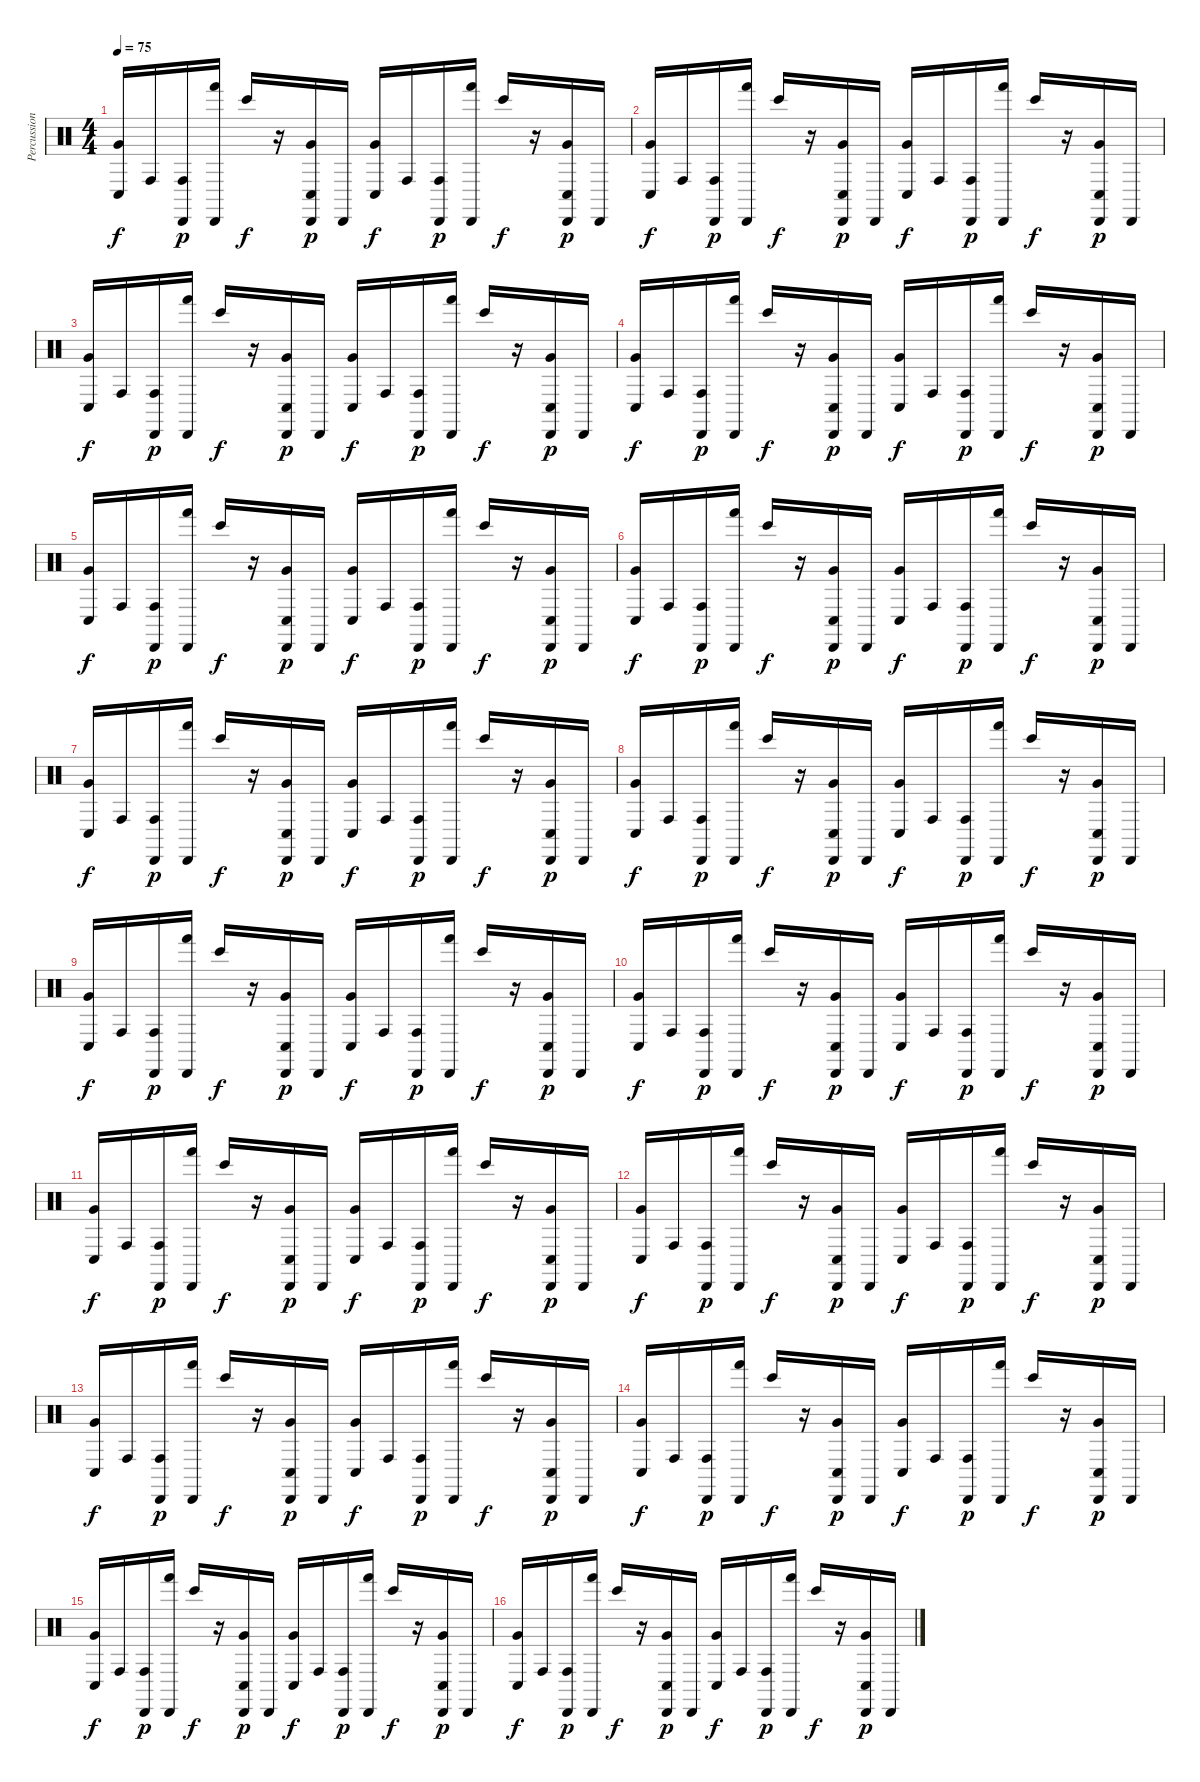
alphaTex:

\track ("Percussions" "Percussion") {instrument percussion}
\staff {score}
\articulation defaults
\ts (4 4)
\tempo 75
\clef neutral
\ks c
("Conga low (hit)" "Very Low Tom (hit)").16{dy f} "Conga high (hit)".16 ("Conga high (hit)" "Cabasa (hit)").16{dy p} ("Hand (hit)" "Cabasa (hit)").16 "Bongo High (hit)".16{dy f} r.16 ("Conga low (hit)" "Very Low Tom (hit)" "Cabasa (hit)").16{dy p} "Cabasa (hit)".16 ("Conga low (hit)" "Very Low Tom (hit)").16{dy f} "Conga high (hit)".16 ("Conga high (hit)" "Cabasa (hit)").16{dy p} ("Hand (hit)" "Cabasa (hit)").16 "Bongo High (hit)".16{dy f} r.16 ("Conga low (hit)" "Very Low Tom (hit)" "Cabasa (hit)").16{dy p} "Cabasa (hit)".16 |
("Conga low (hit)" "Very Low Tom (hit)").16{dy f} "Conga high (hit)".16 ("Conga high (hit)" "Cabasa (hit)").16{dy p} ("Hand (hit)" "Cabasa (hit)").16 "Bongo High (hit)".16{dy f} r.16 ("Conga low (hit)" "Very Low Tom (hit)" "Cabasa (hit)").16{dy p} "Cabasa (hit)".16 ("Conga low (hit)" "Very Low Tom (hit)").16{dy f} "Conga high (hit)".16 ("Conga high (hit)" "Cabasa (hit)").16{dy p} ("Hand (hit)" "Cabasa (hit)").16 "Bongo High (hit)".16{dy f} r.16 ("Conga low (hit)" "Very Low Tom (hit)" "Cabasa (hit)").16{dy p} "Cabasa (hit)".16 |
("Conga low (hit)" "Very Low Tom (hit)").16{dy f} "Conga high (hit)".16 ("Conga high (hit)" "Cabasa (hit)").16{dy p} ("Hand (hit)" "Cabasa (hit)").16 "Bongo High (hit)".16{dy f} r.16 ("Conga low (hit)" "Very Low Tom (hit)" "Cabasa (hit)").16{dy p} "Cabasa (hit)".16 ("Conga low (hit)" "Very Low Tom (hit)").16{dy f} "Conga high (hit)".16 ("Conga high (hit)" "Cabasa (hit)").16{dy p} ("Hand (hit)" "Cabasa (hit)").16 "Bongo High (hit)".16{dy f} r.16 ("Conga low (hit)" "Very Low Tom (hit)" "Cabasa (hit)").16{dy p} "Cabasa (hit)".16 |
("Conga low (hit)" "Very Low Tom (hit)").16{dy f} "Conga high (hit)".16 ("Conga high (hit)" "Cabasa (hit)").16{dy p} ("Hand (hit)" "Cabasa (hit)").16 "Bongo High (hit)".16{dy f} r.16 ("Conga low (hit)" "Very Low Tom (hit)" "Cabasa (hit)").16{dy p} "Cabasa (hit)".16 ("Conga low (hit)" "Very Low Tom (hit)").16{dy f} "Conga high (hit)".16 ("Conga high (hit)" "Cabasa (hit)").16{dy p} ("Hand (hit)" "Cabasa (hit)").16 "Bongo High (hit)".16{dy f} r.16 ("Conga low (hit)" "Very Low Tom (hit)" "Cabasa (hit)").16{dy p} "Cabasa (hit)".16 |
("Conga low (hit)" "Very Low Tom (hit)").16{dy f} "Conga high (hit)".16 ("Conga high (hit)" "Cabasa (hit)").16{dy p} ("Hand (hit)" "Cabasa (hit)").16 "Bongo High (hit)".16{dy f} r.16 ("Conga low (hit)" "Very Low Tom (hit)" "Cabasa (hit)").16{dy p} "Cabasa (hit)".16 ("Conga low (hit)" "Very Low Tom (hit)").16{dy f} "Conga high (hit)".16 ("Conga high (hit)" "Cabasa (hit)").16{dy p} ("Hand (hit)" "Cabasa (hit)").16 "Bongo High (hit)".16{dy f} r.16 ("Conga low (hit)" "Very Low Tom (hit)" "Cabasa (hit)").16{dy p} "Cabasa (hit)".16 |
("Conga low (hit)" "Very Low Tom (hit)").16{dy f} "Conga high (hit)".16 ("Conga high (hit)" "Cabasa (hit)").16{dy p} ("Hand (hit)" "Cabasa (hit)").16 "Bongo High (hit)".16{dy f} r.16 ("Conga low (hit)" "Very Low Tom (hit)" "Cabasa (hit)").16{dy p} "Cabasa (hit)".16 ("Conga low (hit)" "Very Low Tom (hit)").16{dy f} "Conga high (hit)".16 ("Conga high (hit)" "Cabasa (hit)").16{dy p} ("Hand (hit)" "Cabasa (hit)").16 "Bongo High (hit)".16{dy f} r.16 ("Conga low (hit)" "Very Low Tom (hit)" "Cabasa (hit)").16{dy p} "Cabasa (hit)".16 |
("Conga low (hit)" "Very Low Tom (hit)").16{dy f} "Conga high (hit)".16 ("Conga high (hit)" "Cabasa (hit)").16{dy p} ("Hand (hit)" "Cabasa (hit)").16 "Bongo High (hit)".16{dy f} r.16 ("Conga low (hit)" "Very Low Tom (hit)" "Cabasa (hit)").16{dy p} "Cabasa (hit)".16 ("Conga low (hit)" "Very Low Tom (hit)").16{dy f} "Conga high (hit)".16 ("Conga high (hit)" "Cabasa (hit)").16{dy p} ("Hand (hit)" "Cabasa (hit)").16 "Bongo High (hit)".16{dy f} r.16 ("Conga low (hit)" "Very Low Tom (hit)" "Cabasa (hit)").16{dy p} "Cabasa (hit)".16 |
("Conga low (hit)" "Very Low Tom (hit)").16{dy f} "Conga high (hit)".16 ("Conga high (hit)" "Cabasa (hit)").16{dy p} ("Hand (hit)" "Cabasa (hit)").16 "Bongo High (hit)".16{dy f} r.16 ("Conga low (hit)" "Very Low Tom (hit)" "Cabasa (hit)").16{dy p} "Cabasa (hit)".16 ("Conga low (hit)" "Very Low Tom (hit)").16{dy f} "Conga high (hit)".16 ("Conga high (hit)" "Cabasa (hit)").16{dy p} ("Hand (hit)" "Cabasa (hit)").16 "Bongo High (hit)".16{dy f} r.16 ("Conga low (hit)" "Very Low Tom (hit)" "Cabasa (hit)").16{dy p} "Cabasa (hit)".16 |
("Conga low (hit)" "Very Low Tom (hit)").16{dy f} "Conga high (hit)".16 ("Conga high (hit)" "Cabasa (hit)").16{dy p} ("Hand (hit)" "Cabasa (hit)").16 "Bongo High (hit)".16{dy f} r.16 ("Conga low (hit)" "Very Low Tom (hit)" "Cabasa (hit)").16{dy p} "Cabasa (hit)".16 ("Conga low (hit)" "Very Low Tom (hit)").16{dy f} "Conga high (hit)".16 ("Conga high (hit)" "Cabasa (hit)").16{dy p} ("Hand (hit)" "Cabasa (hit)").16 "Bongo High (hit)".16{dy f} r.16 ("Conga low (hit)" "Very Low Tom (hit)" "Cabasa (hit)").16{dy p} "Cabasa (hit)".16 |
("Conga low (hit)" "Very Low Tom (hit)").16{dy f} "Conga high (hit)".16 ("Conga high (hit)" "Cabasa (hit)").16{dy p} ("Hand (hit)" "Cabasa (hit)").16 "Bongo High (hit)".16{dy f} r.16 ("Conga low (hit)" "Very Low Tom (hit)" "Cabasa (hit)").16{dy p} "Cabasa (hit)".16 ("Conga low (hit)" "Very Low Tom (hit)").16{dy f} "Conga high (hit)".16 ("Conga high (hit)" "Cabasa (hit)").16{dy p} ("Hand (hit)" "Cabasa (hit)").16 "Bongo High (hit)".16{dy f} r.16 ("Conga low (hit)" "Very Low Tom (hit)" "Cabasa (hit)").16{dy p} "Cabasa (hit)".16 |
("Conga low (hit)" "Very Low Tom (hit)").16{dy f} "Conga high (hit)".16 ("Conga high (hit)" "Cabasa (hit)").16{dy p} ("Hand (hit)" "Cabasa (hit)").16 "Bongo High (hit)".16{dy f} r.16 ("Conga low (hit)" "Very Low Tom (hit)" "Cabasa (hit)").16{dy p} "Cabasa (hit)".16 ("Conga low (hit)" "Very Low Tom (hit)").16{dy f} "Conga high (hit)".16 ("Conga high (hit)" "Cabasa (hit)").16{dy p} ("Hand (hit)" "Cabasa (hit)").16 "Bongo High (hit)".16{dy f} r.16 ("Conga low (hit)" "Very Low Tom (hit)" "Cabasa (hit)").16{dy p} "Cabasa (hit)".16 |
("Conga low (hit)" "Very Low Tom (hit)").16{dy f} "Conga high (hit)".16 ("Conga high (hit)" "Cabasa (hit)").16{dy p} ("Hand (hit)" "Cabasa (hit)").16 "Bongo High (hit)".16{dy f} r.16 ("Conga low (hit)" "Very Low Tom (hit)" "Cabasa (hit)").16{dy p} "Cabasa (hit)".16 ("Conga low (hit)" "Very Low Tom (hit)").16{dy f} "Conga high (hit)".16 ("Conga high (hit)" "Cabasa (hit)").16{dy p} ("Hand (hit)" "Cabasa (hit)").16 "Bongo High (hit)".16{dy f} r.16 ("Conga low (hit)" "Very Low Tom (hit)" "Cabasa (hit)").16{dy p} "Cabasa (hit)".16 |
("Conga low (hit)" "Very Low Tom (hit)").16{dy f} "Conga high (hit)".16 ("Conga high (hit)" "Cabasa (hit)").16{dy p} ("Hand (hit)" "Cabasa (hit)").16 "Bongo High (hit)".16{dy f} r.16 ("Conga low (hit)" "Very Low Tom (hit)" "Cabasa (hit)").16{dy p} "Cabasa (hit)".16 ("Conga low (hit)" "Very Low Tom (hit)").16{dy f} "Conga high (hit)".16 ("Conga high (hit)" "Cabasa (hit)").16{dy p} ("Hand (hit)" "Cabasa (hit)").16 "Bongo High (hit)".16{dy f} r.16 ("Conga low (hit)" "Very Low Tom (hit)" "Cabasa (hit)").16{dy p} "Cabasa (hit)".16 |
("Conga low (hit)" "Very Low Tom (hit)").16{dy f} "Conga high (hit)".16 ("Conga high (hit)" "Cabasa (hit)").16{dy p} ("Hand (hit)" "Cabasa (hit)").16 "Bongo High (hit)".16{dy f} r.16 ("Conga low (hit)" "Very Low Tom (hit)" "Cabasa (hit)").16{dy p} "Cabasa (hit)".16 ("Conga low (hit)" "Very Low Tom (hit)").16{dy f} "Conga high (hit)".16 ("Conga high (hit)" "Cabasa (hit)").16{dy p} ("Hand (hit)" "Cabasa (hit)").16 "Bongo High (hit)".16{dy f} r.16 ("Conga low (hit)" "Very Low Tom (hit)" "Cabasa (hit)").16{dy p} "Cabasa (hit)".16 |
("Conga low (hit)" "Very Low Tom (hit)").16{dy f} "Conga high (hit)".16 ("Conga high (hit)" "Cabasa (hit)").16{dy p} ("Hand (hit)" "Cabasa (hit)").16 "Bongo High (hit)".16{dy f} r.16 ("Conga low (hit)" "Very Low Tom (hit)" "Cabasa (hit)").16{dy p} "Cabasa (hit)".16 ("Conga low (hit)" "Very Low Tom (hit)").16{dy f} "Conga high (hit)".16 ("Conga high (hit)" "Cabasa (hit)").16{dy p} ("Hand (hit)" "Cabasa (hit)").16 "Bongo High (hit)".16{dy f} r.16 ("Conga low (hit)" "Very Low Tom (hit)" "Cabasa (hit)").16{dy p} "Cabasa (hit)".16 |
("Conga low (hit)" "Very Low Tom (hit)").16{dy f} "Conga high (hit)".16 ("Conga high (hit)" "Cabasa (hit)").16{dy p} ("Hand (hit)" "Cabasa (hit)").16 "Bongo High (hit)".16{dy f} r.16 ("Conga low (hit)" "Very Low Tom (hit)" "Cabasa (hit)").16{dy p} "Cabasa (hit)".16 ("Conga low (hit)" "Very Low Tom (hit)").16{dy f} "Conga high (hit)".16 ("Conga high (hit)" "Cabasa (hit)").16{dy p} ("Hand (hit)" "Cabasa (hit)").16 "Bongo High (hit)".16{dy f} r.16 ("Conga low (hit)" "Very Low Tom (hit)" "Cabasa (hit)").16{dy p} "Cabasa (hit)".16
